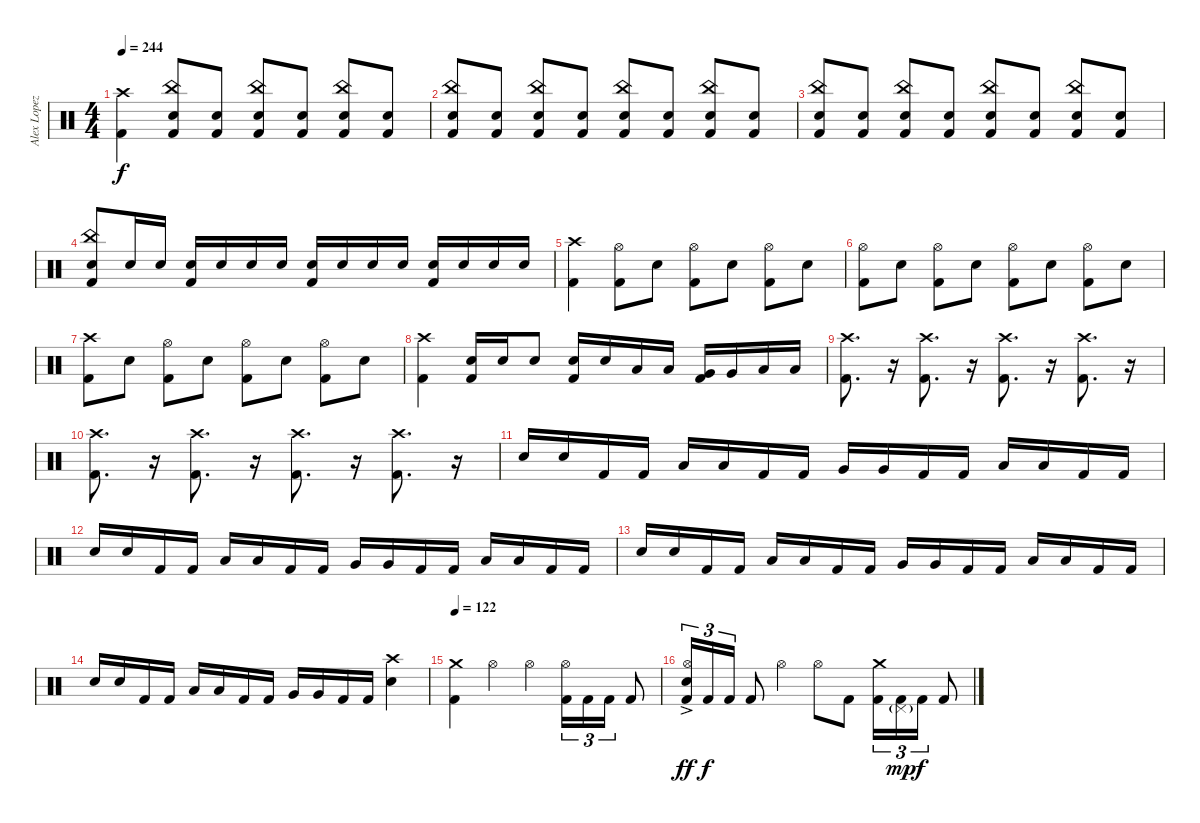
\track ("Alex Lopez" "Alex Lopez") {instrument percussion}
\staff {score}
\articulation defaults
\ts (4 4)
\tempo 244
\clef neutral
\ks c
("Crash high (hit)" "Kick (hit) 2").4{dy f} ("China (hit)" "Electric Snare (hit)" "Kick (hit) 2").8 ("Electric Snare (hit)" "Kick (hit) 2").8 ("China (hit)" "Electric Snare (hit)" "Kick (hit) 2").8 ("Electric Snare (hit)" "Kick (hit) 2").8 ("China (hit)" "Electric Snare (hit)" "Kick (hit) 2").8 ("Electric Snare (hit)" "Kick (hit) 2").8 |
("China (hit)" "Electric Snare (hit)" "Kick (hit) 2").8 ("Electric Snare (hit)" "Kick (hit) 2").8 ("China (hit)" "Electric Snare (hit)" "Kick (hit) 2").8 ("Electric Snare (hit)" "Kick (hit) 2").8 ("China (hit)" "Electric Snare (hit)" "Kick (hit) 2").8 ("Electric Snare (hit)" "Kick (hit) 2").8 ("China (hit)" "Electric Snare (hit)" "Kick (hit) 2").8 ("Electric Snare (hit)" "Kick (hit) 2").8 |
("China (hit)" "Electric Snare (hit)" "Kick (hit) 2").8 ("Electric Snare (hit)" "Kick (hit) 2").8 ("China (hit)" "Electric Snare (hit)" "Kick (hit) 2").8 ("Electric Snare (hit)" "Kick (hit) 2").8 ("China (hit)" "Electric Snare (hit)" "Kick (hit) 2").8 ("Electric Snare (hit)" "Kick (hit) 2").8 ("China (hit)" "Electric Snare (hit)" "Kick (hit) 2").8 ("Electric Snare (hit)" "Kick (hit) 2").8 |
("China (hit)" "Electric Snare (hit)" "Kick (hit) 2").8 "Electric Snare (hit)".16 "Electric Snare (hit)".16 ("Electric Snare (hit)" "Kick (hit) 2").16 "Electric Snare (hit)".16 "Electric Snare (hit)".16 "Electric Snare (hit)".16 ("Electric Snare (hit)" "Kick (hit) 2").16 "Electric Snare (hit)".16 "Electric Snare (hit)".16 "Electric Snare (hit)".16 ("Electric Snare (hit)" "Kick (hit) 2").16 "Electric Snare (hit)".16 "Electric Snare (hit)".16 "Electric Snare (hit)".16 |
("Crash high (hit)" "Kick (hit) 2").4 ("Hi-Hat (open)" "Kick (hit) 2").8 "Snare (hit) 2".8 ("Hi-Hat (open)" "Kick (hit) 2").8 "Snare (hit) 2".8 ("Hi-Hat (open)" "Kick (hit) 2").8 "Snare (hit) 2".8 |
("Hi-Hat (open)" "Kick (hit) 2").8 "Snare (hit) 2".8 ("Hi-Hat (open)" "Kick (hit) 2").8 "Snare (hit) 2".8 ("Hi-Hat (open)" "Kick (hit) 2").8 "Snare (hit) 2".8 ("Hi-Hat (open)" "Kick (hit) 2").8 "Snare (hit) 2".8 |
("Crash high (hit)" "Kick (hit) 2").8 "Snare (hit) 2".8 ("Hi-Hat (open)" "Kick (hit) 2").8 "Snare (hit) 2".8 ("Hi-Hat (open)" "Kick (hit) 2").8 "Snare (hit) 2".8 ("Hi-Hat (open)" "Kick (hit) 2").8 "Snare (hit) 2".8 |
("Crash high (hit)" "Kick (hit) 2").4 ("Snare (hit) 2" "Kick (hit) 2").16 "Snare (hit) 2".16 "Snare (hit) 2".8 ("Snare (hit) 2" "Kick (hit) 2").16 "Snare (hit) 2".16 "Low Tom (hit)".16 "Low Tom (hit)".16 ("Very Low Tom (hit)" "Kick (hit) 2").16 "Very Low Tom (hit)".16 "Low Floor Tom (hit)".16 "Low Floor Tom (hit)".16 |
("Crash high (hit)" "Kick (hit) 2").8{d} r.16{volume 0} ("Crash high (hit)" "Kick (hit) 2").8{d volume 16} r.16{volume 0} ("Crash high (hit)" "Kick (hit) 2").8{d volume 16} r.16{volume 0} ("Crash high (hit)" "Kick (hit) 2").8{d volume 16} r.16{volume 16} |
("Crash high (hit)" "Kick (hit) 2").8{d} r.16{volume 0} ("Crash high (hit)" "Kick (hit) 2").8{d volume 16} r.16{volume 0} ("Crash high (hit)" "Kick (hit) 2").8{d volume 16} r.16{volume 0} ("Crash high (hit)" "Kick (hit) 2").8{d volume 16} r.16{volume 16} |
"Snare (hit) 2".16{volume 16} "Snare (hit) 2".16 "Kick (hit) 2".16 "Kick (hit) 2".16 "Low Tom (hit)".16 "Low Tom (hit)".16 "Kick (hit) 2".16 "Kick (hit) 2".16 "Very Low Tom (hit)".16 "Very Low Tom (hit)".16 "Kick (hit) 2".16 "Kick (hit) 2".16 "Low Floor Tom (hit)".16 "Low Floor Tom (hit)".16 "Kick (hit) 2".16 "Kick (hit) 2".16 |
"Snare (hit) 2".16 "Snare (hit) 2".16 "Kick (hit) 2".16 "Kick (hit) 2".16 "Low Tom (hit)".16 "Low Tom (hit)".16 "Kick (hit) 2".16 "Kick (hit) 2".16 "Very Low Tom (hit)".16 "Very Low Tom (hit)".16 "Kick (hit) 2".16 "Kick (hit) 2".16 "Low Floor Tom (hit)".16 "Low Floor Tom (hit)".16 "Kick (hit) 2".16 "Kick (hit) 2".16 |
"Snare (hit) 2".16 "Snare (hit) 2".16 "Kick (hit) 2".16 "Kick (hit) 2".16 "Low Tom (hit)".16 "Low Tom (hit)".16 "Kick (hit) 2".16 "Kick (hit) 2".16 "Very Low Tom (hit)".16 "Very Low Tom (hit)".16 "Kick (hit) 2".16 "Kick (hit) 2".16 "Low Floor Tom (hit)".16 "Low Floor Tom (hit)".16 "Kick (hit) 2".16 "Kick (hit) 2".16 |
"Snare (hit) 2".16 "Snare (hit) 2".16 "Kick (hit) 2".16 "Kick (hit) 2".16 "Low Tom (hit)".16 "Low Tom (hit)".16 "Kick (hit) 2".16 "Kick (hit) 2".16 "Very Low Tom (hit)".16 "Very Low Tom (hit)".16 "Kick (hit) 2".16 "Kick (hit) 2".16 ("Crash high (hit)" "Snare (hit) 2").4 |
\tempo 122
("Crash medium (hit)" "Kick (hit) 2").4 "Hi-Hat (open)".4 "Hi-Hat (open)".4 ("Hi-Hat (open)" "Kick (hit) 2").16{tu (3 2)} "Kick (hit) 2".16{tu (3 2)} "Kick (hit) 2".16{tu (3 2)} "Kick (hit) 2".8 |
("Hi-Hat (open)" "Snare (hit) 2"{ac} "Kick (hit) 2").16{tu (3 2) dy ff} "Kick (hit) 2".16{tu (3 2) dy f} "Kick (hit) 2".16{tu (3 2)} "Kick (hit) 2".8 "Hi-Hat (open)".4 "Hi-Hat (open)".8 "Kick (hit) 2".8 ("Crash medium (hit)" "Kick (hit) 2").16{tu (3 2)} ("Pedal Hi-Hat (hit)"{g} "Kick (hit) 2").16{tu (3 2) dy mp} "Kick (hit) 2".16{tu (3 2) dy f} "Kick (hit) 2".8
